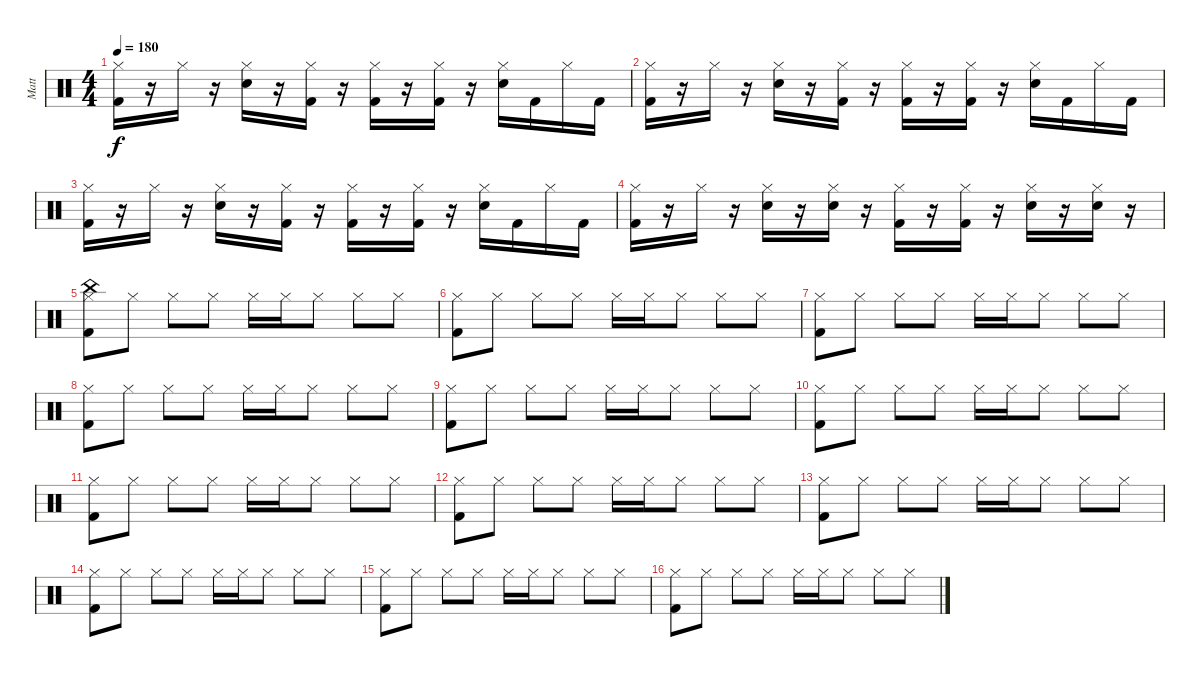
\track ("Matt" "Matt") {instrument percussion}
\staff {score}
\articulation defaults
\ts (4 4)
\tempo 180
\clef neutral
\ks c
("Hi-Hat (closed)" "Kick (hit) 2").16{dy f} r.16 "Hi-Hat (closed)".16 r.16 ("Hi-Hat (closed)" "Snare (hit) 2").16 r.16 ("Hi-Hat (closed)" "Kick (hit) 2").16 r.16 ("Hi-Hat (closed)" "Kick (hit) 2").16 r.16 ("Hi-Hat (closed)" "Kick (hit) 2").16 r.16 ("Hi-Hat (closed)" "Snare (hit) 2").16 "Kick (hit) 2".16 "Hi-Hat (closed)".16 "Kick (hit) 2".16 |
("Hi-Hat (closed)" "Kick (hit) 2").16 r.16 "Hi-Hat (closed)".16 r.16 ("Hi-Hat (closed)" "Snare (hit) 2").16 r.16 ("Hi-Hat (closed)" "Kick (hit) 2").16 r.16 ("Hi-Hat (closed)" "Kick (hit) 2").16 r.16 ("Hi-Hat (closed)" "Kick (hit) 2").16 r.16 ("Hi-Hat (closed)" "Snare (hit) 2").16 "Kick (hit) 2".16 "Hi-Hat (closed)".16 "Kick (hit) 2".16 |
("Hi-Hat (closed)" "Kick (hit) 2").16 r.16 "Hi-Hat (closed)".16 r.16 ("Hi-Hat (closed)" "Snare (hit) 2").16 r.16 ("Hi-Hat (closed)" "Kick (hit) 2").16 r.16 ("Hi-Hat (closed)" "Kick (hit) 2").16 r.16 ("Hi-Hat (closed)" "Kick (hit) 2").16 r.16 ("Hi-Hat (closed)" "Snare (hit) 2").16 "Kick (hit) 2".16 "Hi-Hat (closed)".16 "Kick (hit) 2".16 |
("Hi-Hat (closed)" "Kick (hit) 2").16 r.16 "Hi-Hat (closed)".16 r.16 ("Hi-Hat (closed)" "Snare (hit) 2").16 r.16 ("Hi-Hat (closed)" "Snare (hit) 2").16 r.16 ("Hi-Hat (closed)" "Kick (hit) 2").16 r.16 ("Hi-Hat (closed)" "Kick (hit) 2").16 r.16 ("Hi-Hat (closed)" "Snare (hit) 2").16 r.16 ("Hi-Hat (closed)" "Snare (hit) 2").16 r.16 |
("China (hit)" "Hi-Hat (closed)" "Kick (hit) 2").8 "Hi-Hat (closed)".8 "Hi-Hat (closed)".8 "Hi-Hat (closed)".8 "Hi-Hat (closed)".16 "Hi-Hat (closed)".16 "Hi-Hat (closed)".8 "Hi-Hat (closed)".8 "Hi-Hat (closed)".8 |
("Hi-Hat (closed)" "Kick (hit) 2").8 "Hi-Hat (closed)".8 "Hi-Hat (closed)".8 "Hi-Hat (closed)".8 "Hi-Hat (closed)".16 "Hi-Hat (closed)".16 "Hi-Hat (closed)".8 "Hi-Hat (closed)".8 "Hi-Hat (closed)".8 |
("Hi-Hat (closed)" "Kick (hit) 2").8 "Hi-Hat (closed)".8 "Hi-Hat (closed)".8 "Hi-Hat (closed)".8 "Hi-Hat (closed)".16 "Hi-Hat (closed)".16 "Hi-Hat (closed)".8 "Hi-Hat (closed)".8 "Hi-Hat (closed)".8 |
("Hi-Hat (closed)" "Kick (hit) 2").8 "Hi-Hat (closed)".8 "Hi-Hat (closed)".8 "Hi-Hat (closed)".8 "Hi-Hat (closed)".16 "Hi-Hat (closed)".16 "Hi-Hat (closed)".8 "Hi-Hat (closed)".8 "Hi-Hat (closed)".8 |
("Hi-Hat (closed)" "Kick (hit) 2").8 "Hi-Hat (closed)".8 "Hi-Hat (closed)".8 "Hi-Hat (closed)".8 "Hi-Hat (closed)".16 "Hi-Hat (closed)".16 "Hi-Hat (closed)".8 "Hi-Hat (closed)".8 "Hi-Hat (closed)".8 |
("Hi-Hat (closed)" "Kick (hit) 2").8 "Hi-Hat (closed)".8 "Hi-Hat (closed)".8 "Hi-Hat (closed)".8 "Hi-Hat (closed)".16 "Hi-Hat (closed)".16 "Hi-Hat (closed)".8 "Hi-Hat (closed)".8 "Hi-Hat (closed)".8 |
("Hi-Hat (closed)" "Kick (hit) 2").8 "Hi-Hat (closed)".8 "Hi-Hat (closed)".8 "Hi-Hat (closed)".8 "Hi-Hat (closed)".16 "Hi-Hat (closed)".16 "Hi-Hat (closed)".8 "Hi-Hat (closed)".8 "Hi-Hat (closed)".8 |
("Hi-Hat (closed)" "Kick (hit) 2").8 "Hi-Hat (closed)".8 "Hi-Hat (closed)".8 "Hi-Hat (closed)".8 "Hi-Hat (closed)".16 "Hi-Hat (closed)".16 "Hi-Hat (closed)".8 "Hi-Hat (closed)".8 "Hi-Hat (closed)".8 |
("Hi-Hat (closed)" "Kick (hit) 2").8 "Hi-Hat (closed)".8 "Hi-Hat (closed)".8 "Hi-Hat (closed)".8 "Hi-Hat (closed)".16 "Hi-Hat (closed)".16 "Hi-Hat (closed)".8 "Hi-Hat (closed)".8 "Hi-Hat (closed)".8 |
("Hi-Hat (closed)" "Kick (hit) 2").8 "Hi-Hat (closed)".8 "Hi-Hat (closed)".8 "Hi-Hat (closed)".8 "Hi-Hat (closed)".16 "Hi-Hat (closed)".16 "Hi-Hat (closed)".8 "Hi-Hat (closed)".8 "Hi-Hat (closed)".8 |
("Hi-Hat (closed)" "Kick (hit) 2").8 "Hi-Hat (closed)".8 "Hi-Hat (closed)".8 "Hi-Hat (closed)".8 "Hi-Hat (closed)".16 "Hi-Hat (closed)".16 "Hi-Hat (closed)".8 "Hi-Hat (closed)".8 "Hi-Hat (closed)".8 |
("Hi-Hat (closed)" "Kick (hit) 2").8 "Hi-Hat (closed)".8 "Hi-Hat (closed)".8 "Hi-Hat (closed)".8 "Hi-Hat (closed)".16 "Hi-Hat (closed)".16 "Hi-Hat (closed)".8 "Hi-Hat (closed)".8 "Hi-Hat (closed)".8
